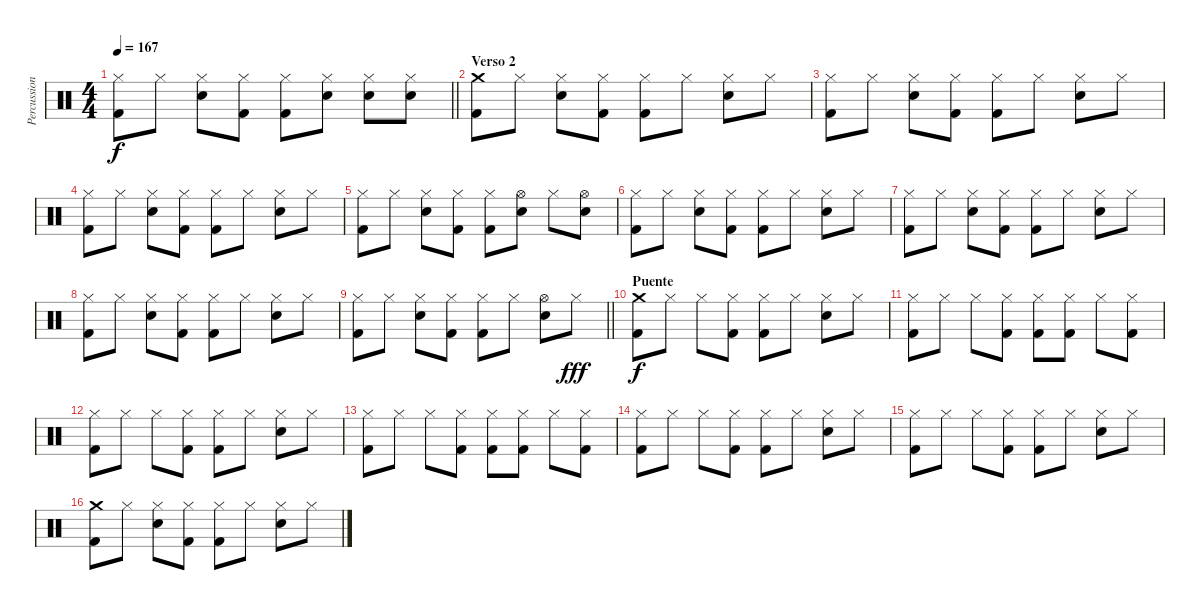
\track ("Percussion" "Percussion") {instrument percussion}
\staff {score}
\articulation defaults
\ts (4 4)
\tempo 167
\clef neutral
\barLineRight lightlight
\ks c
("Hi-Hat (closed)" "Kick (hit) 2").8{dy f} "Hi-Hat (closed)".8 ("Hi-Hat (closed)" "Snare (hit) 2").8 ("Hi-Hat (closed)" "Kick (hit) 2").8 ("Hi-Hat (closed)" "Kick (hit) 2").8 ("Hi-Hat (closed)" "Snare (hit) 2").8 ("Hi-Hat (closed)" "Snare (hit) 2").8 ("Hi-Hat (closed)" "Snare (hit) 2").8 |
\section ("" "Verso 2")
("Crash medium (hit)" "Kick (hit) 2").8 "Hi-Hat (closed)".8 ("Hi-Hat (closed)" "Snare (hit) 2").8 ("Hi-Hat (closed)" "Kick (hit) 2").8 ("Hi-Hat (closed)" "Kick (hit) 2").8 "Hi-Hat (closed)".8 ("Hi-Hat (closed)" "Snare (hit) 2").8 "Hi-Hat (closed)".8 |
("Hi-Hat (closed)" "Kick (hit) 2").8 "Hi-Hat (closed)".8 ("Hi-Hat (closed)" "Snare (hit) 2").8 ("Hi-Hat (closed)" "Kick (hit) 2").8 ("Hi-Hat (closed)" "Kick (hit) 2").8 "Hi-Hat (closed)".8 ("Hi-Hat (closed)" "Snare (hit) 2").8 "Hi-Hat (closed)".8 |
("Hi-Hat (closed)" "Kick (hit) 2").8 "Hi-Hat (closed)".8 ("Hi-Hat (closed)" "Snare (hit) 2").8 ("Hi-Hat (closed)" "Kick (hit) 2").8 ("Hi-Hat (closed)" "Kick (hit) 2").8 "Hi-Hat (closed)".8 ("Hi-Hat (closed)" "Snare (hit) 2").8 "Hi-Hat (closed)".8 |
("Hi-Hat (closed)" "Kick (hit) 2").8 "Hi-Hat (closed)".8 ("Hi-Hat (closed)" "Snare (hit) 2").8 ("Hi-Hat (closed)" "Kick (hit) 2").8 ("Hi-Hat (closed)" "Kick (hit) 2").8 ("Hi-Hat (open)" "Snare (hit) 2").8 "Hi-Hat (closed)".8 ("Hi-Hat (open)" "Snare (hit) 2").8 |
("Hi-Hat (closed)" "Kick (hit) 2").8 "Hi-Hat (closed)".8 ("Hi-Hat (closed)" "Snare (hit) 2").8 ("Hi-Hat (closed)" "Kick (hit) 2").8 ("Hi-Hat (closed)" "Kick (hit) 2").8 "Hi-Hat (closed)".8 ("Hi-Hat (closed)" "Snare (hit) 2").8 "Hi-Hat (closed)".8 |
("Hi-Hat (closed)" "Kick (hit) 2").8 "Hi-Hat (closed)".8 ("Hi-Hat (closed)" "Snare (hit) 2").8 ("Hi-Hat (closed)" "Kick (hit) 2").8 ("Hi-Hat (closed)" "Kick (hit) 2").8 "Hi-Hat (closed)".8 ("Hi-Hat (closed)" "Snare (hit) 2").8 "Hi-Hat (closed)".8 |
("Hi-Hat (closed)" "Kick (hit) 2").8 "Hi-Hat (closed)".8 ("Hi-Hat (closed)" "Snare (hit) 2").8 ("Hi-Hat (closed)" "Kick (hit) 2").8 ("Hi-Hat (closed)" "Kick (hit) 2").8 "Hi-Hat (closed)".8 ("Hi-Hat (closed)" "Snare (hit) 2").8 "Hi-Hat (closed)".8 |
\barLineRight lightlight
("Hi-Hat (closed)" "Kick (hit) 2").8 "Hi-Hat (closed)".8 ("Hi-Hat (closed)" "Snare (hit) 2").8 ("Hi-Hat (closed)" "Kick (hit) 2").8 ("Hi-Hat (closed)" "Kick (hit) 2").8 "Hi-Hat (closed)".8 ("Hi-Hat (open)" "Snare (hit) 2").8 "Hi-Hat (closed)".8{dy fff} |
\section ("" "Puente")
("Crash medium (hit)" "Kick (hit) 2").8{dy f} "Hi-Hat (closed)".8 "Hi-Hat (closed)".8 ("Hi-Hat (closed)" "Kick (hit) 2").8 ("Hi-Hat (closed)" "Kick (hit) 2").8 "Hi-Hat (closed)".8 ("Hi-Hat (closed)" "Snare (hit) 2").8 "Hi-Hat (closed)".8 |
("Hi-Hat (closed)" "Kick (hit) 2").8 "Hi-Hat (closed)".8 "Hi-Hat (closed)".8 ("Hi-Hat (closed)" "Kick (hit) 2").8 ("Hi-Hat (closed)" "Kick (hit) 2").8 ("Hi-Hat (closed)" "Kick (hit) 2").8 "Hi-Hat (closed)".8 ("Hi-Hat (closed)" "Kick (hit) 2").8 |
("Hi-Hat (closed)" "Kick (hit) 2").8 "Hi-Hat (closed)".8 "Hi-Hat (closed)".8 ("Hi-Hat (closed)" "Kick (hit) 2").8 ("Hi-Hat (closed)" "Kick (hit) 2").8 "Hi-Hat (closed)".8 ("Hi-Hat (closed)" "Snare (hit) 2").8 "Hi-Hat (closed)".8 |
("Hi-Hat (closed)" "Kick (hit) 2").8 "Hi-Hat (closed)".8 "Hi-Hat (closed)".8 ("Hi-Hat (closed)" "Kick (hit) 2").8 ("Hi-Hat (closed)" "Kick (hit) 2").8 ("Hi-Hat (closed)" "Kick (hit) 2").8 "Hi-Hat (closed)".8 ("Hi-Hat (closed)" "Kick (hit) 2").8 |
("Hi-Hat (closed)" "Kick (hit) 2").8 "Hi-Hat (closed)".8 "Hi-Hat (closed)".8 ("Hi-Hat (closed)" "Kick (hit) 2").8 ("Hi-Hat (closed)" "Kick (hit) 2").8 "Hi-Hat (closed)".8 ("Hi-Hat (closed)" "Snare (hit) 2").8 "Hi-Hat (closed)".8 |
("Hi-Hat (closed)" "Kick (hit) 2").8 "Hi-Hat (closed)".8 "Hi-Hat (closed)".8 ("Hi-Hat (closed)" "Kick (hit) 2").8 ("Hi-Hat (closed)" "Kick (hit) 2").8 "Hi-Hat (closed)".8 ("Hi-Hat (closed)" "Snare (hit) 2").8 "Hi-Hat (closed)".8 |
("Crash medium (hit)" "Kick (hit) 2").8 "Hi-Hat (closed)".8 ("Hi-Hat (closed)" "Snare (hit) 2").8 ("Hi-Hat (closed)" "Kick (hit) 2").8 ("Hi-Hat (closed)" "Kick (hit) 2").8 "Hi-Hat (closed)".8 ("Hi-Hat (closed)" "Snare (hit) 2").8 "Hi-Hat (closed)".8
